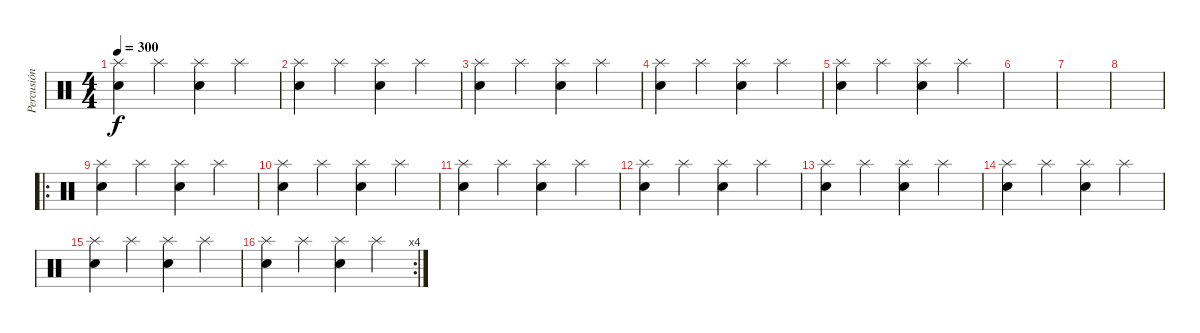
\track ("Percusión" "Percusión") {instrument percussion}
\staff {score}
\articulation defaults
\ts (4 4)
\tempo 300
\clef neutral
\ks c
("Electric Snare (hit)" "Splash (hit)").4{dy f} "Splash (hit)".4 ("Electric Snare (hit)" "Splash (hit)").4 "Splash (hit)".4 |
("Electric Snare (hit)" "Splash (hit)").4 "Splash (hit)".4 ("Electric Snare (hit)" "Splash (hit)").4 "Splash (hit)".4 |
("Electric Snare (hit)" "Splash (hit)").4 "Splash (hit)".4 ("Electric Snare (hit)" "Splash (hit)").4 "Splash (hit)".4 |
("Electric Snare (hit)" "Splash (hit)").4 "Splash (hit)".4 ("Electric Snare (hit)" "Splash (hit)").4 "Splash (hit)".4 |
("Electric Snare (hit)" "Splash (hit)").4 "Splash (hit)".4 ("Electric Snare (hit)" "Splash (hit)").4 "Splash (hit)".4 |
|
|
|
\ro
("Electric Snare (hit)" "Splash (hit)").4 "Splash (hit)".4 ("Electric Snare (hit)" "Splash (hit)").4 "Splash (hit)".4 |
("Electric Snare (hit)" "Splash (hit)").4 "Splash (hit)".4 ("Electric Snare (hit)" "Splash (hit)").4 "Splash (hit)".4 |
("Electric Snare (hit)" "Splash (hit)").4 "Splash (hit)".4 ("Electric Snare (hit)" "Splash (hit)").4 "Splash (hit)".4 |
("Electric Snare (hit)" "Splash (hit)").4 "Splash (hit)".4 ("Electric Snare (hit)" "Splash (hit)").4 "Splash (hit)".4 |
("Electric Snare (hit)" "Splash (hit)").4 "Splash (hit)".4 ("Electric Snare (hit)" "Splash (hit)").4 "Splash (hit)".4 |
("Electric Snare (hit)" "Splash (hit)").4 "Splash (hit)".4 ("Electric Snare (hit)" "Splash (hit)").4 "Splash (hit)".4 |
("Electric Snare (hit)" "Splash (hit)").4 "Splash (hit)".4 ("Electric Snare (hit)" "Splash (hit)").4 "Splash (hit)".4 |
\rc 4
("Electric Snare (hit)" "Splash (hit)").4 "Splash (hit)".4 ("Electric Snare (hit)" "Splash (hit)").4 "Splash (hit)".4
